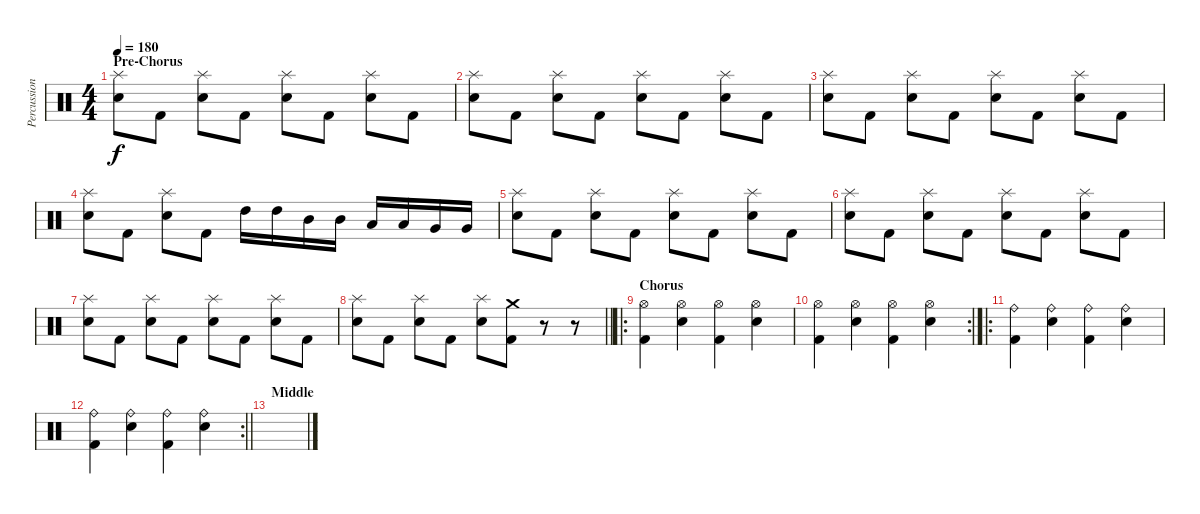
\track ("Percussion" "Percussion") {instrument percussion}
\staff {score}
\articulation defaults
\ts (4 4)
\section ("" "Pre-Chorus")
\tempo 180
\clef neutral
\ks c
("Splash (hit)" "Electric Snare (hit)").8{dy f} "Kick (hit) 2".8 ("Splash (hit)" "Electric Snare (hit)").8 "Kick (hit) 2".8 ("Splash (hit)" "Electric Snare (hit)").8 "Kick (hit) 2".8 ("Splash (hit)" "Electric Snare (hit)").8 "Kick (hit) 2".8 |
("Splash (hit)" "Electric Snare (hit)").8 "Kick (hit) 2".8 ("Splash (hit)" "Electric Snare (hit)").8 "Kick (hit) 2".8 ("Splash (hit)" "Electric Snare (hit)").8 "Kick (hit) 2".8 ("Splash (hit)" "Electric Snare (hit)").8 "Kick (hit) 2".8 |
("Splash (hit)" "Electric Snare (hit)").8 "Kick (hit) 2".8 ("Splash (hit)" "Electric Snare (hit)").8 "Kick (hit) 2".8 ("Splash (hit)" "Electric Snare (hit)").8 "Kick (hit) 2".8 ("Splash (hit)" "Electric Snare (hit)").8 "Kick (hit) 2".8 |
("Splash (hit)" "Electric Snare (hit)").8 "Kick (hit) 2".8 ("Splash (hit)" "Electric Snare (hit)").8 "Kick (hit) 2".8 "High Tom (hit)".16 "High Tom (hit)".16 "Mid Tom (hit)".16 "Mid Tom (hit)".16 "Low Tom (hit)".16 "Low Tom (hit)".16 "Very Low Tom (hit)".16 "Very Low Tom (hit)".16 |
("Splash (hit)" "Electric Snare (hit)").8 "Kick (hit) 2".8 ("Splash (hit)" "Electric Snare (hit)").8 "Kick (hit) 2".8 ("Splash (hit)" "Electric Snare (hit)").8 "Kick (hit) 2".8 ("Splash (hit)" "Electric Snare (hit)").8 "Kick (hit) 2".8 |
("Splash (hit)" "Electric Snare (hit)").8 "Kick (hit) 2".8 ("Splash (hit)" "Electric Snare (hit)").8 "Kick (hit) 2".8 ("Splash (hit)" "Electric Snare (hit)").8 "Kick (hit) 2".8 ("Splash (hit)" "Electric Snare (hit)").8 "Kick (hit) 2".8 |
("Splash (hit)" "Electric Snare (hit)").8 "Kick (hit) 2".8 ("Splash (hit)" "Electric Snare (hit)").8 "Kick (hit) 2".8 ("Splash (hit)" "Electric Snare (hit)").8 "Kick (hit) 2".8 ("Splash (hit)" "Electric Snare (hit)").8 "Kick (hit) 2".8 |
\barLineRight lightlight
("Splash (hit)" "Electric Snare (hit)").8 "Kick (hit) 2".8 ("Splash (hit)" "Electric Snare (hit)").8 "Kick (hit) 2".8 ("Splash (hit)" "Electric Snare (hit)").8 ("Crash medium (hit)" "Kick (hit) 2").8 r.8 r.8 |
\ro
\section ("" "Chorus")
("Hi-Hat (open)" "Kick (hit) 2").4 ("Hi-Hat (open)" "Electric Snare (hit)").4 ("Hi-Hat (open)" "Kick (hit) 2").4 ("Hi-Hat (open)" "Electric Snare (hit)").4 |
\rc 2
("Hi-Hat (open)" "Kick (hit) 2").4 ("Hi-Hat (open)" "Electric Snare (hit)").4 ("Hi-Hat (open)" "Kick (hit) 2").4 ("Hi-Hat (open)" "Electric Snare (hit)").4 |
\ro
("Ride (bell)" "Kick (hit) 2").4 ("Ride (bell)" "Electric Snare (hit)").4 ("Ride (bell)" "Kick (hit) 2").4 ("Ride (bell)" "Electric Snare (hit)").4 |
\rc 2
\barLineRight lightlight
("Ride (bell)" "Kick (hit) 2").4 ("Ride (bell)" "Electric Snare (hit)").4 ("Ride (bell)" "Kick (hit) 2").4 ("Ride (bell)" "Electric Snare (hit)").4 |
\section ("" "Middle")
